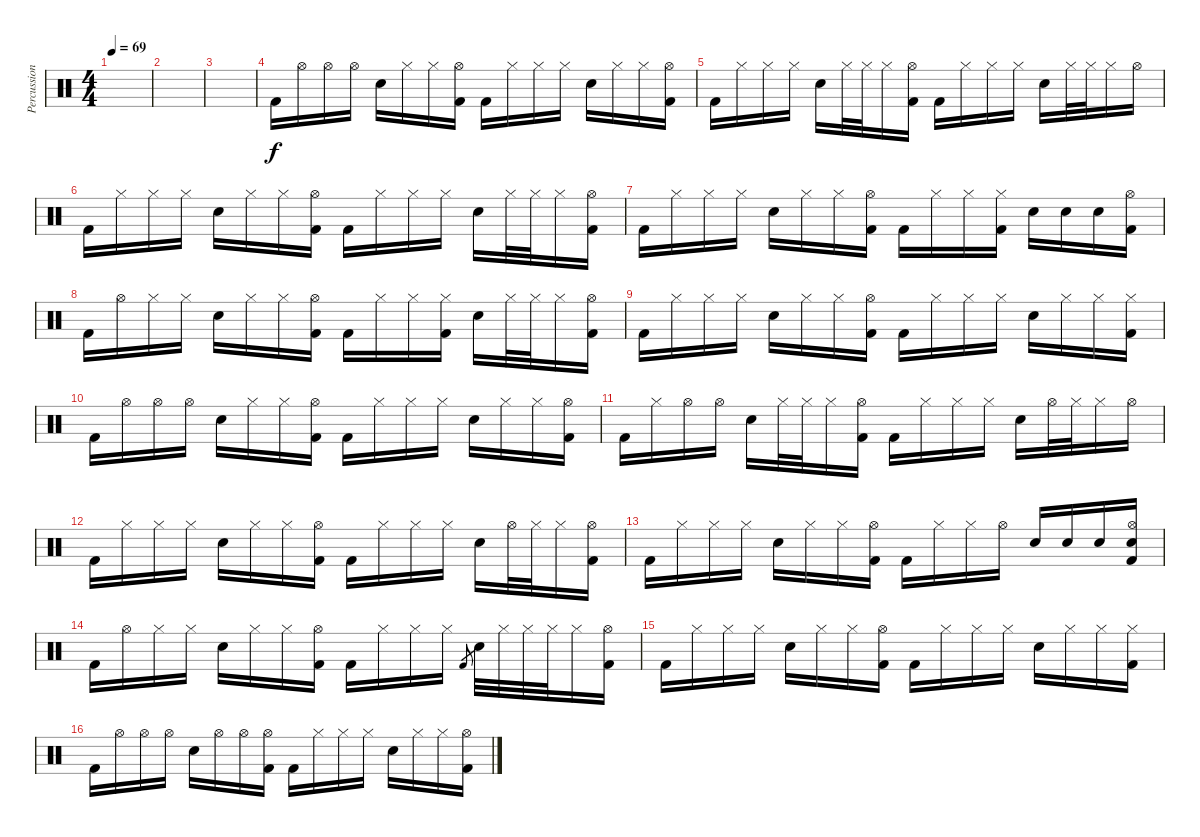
\track ("Percussions" "Percussion") {instrument percussion}
\staff {score}
\articulation defaults
\ts (4 4)
\tempo 69
\clef neutral
\ks c
|
|
|
"Kick (hit) 2".16 "Hi-Hat (open)".16 "Hi-Hat (open)".16 "Hi-Hat (open)".16 "Electric Snare (hit)".16 "Hi-Hat (closed)".16 "Hi-Hat (closed)".16 ("Hi-Hat (open)" "Kick (hit) 2").16 "Kick (hit) 2".16 "Hi-Hat (closed)".16 "Hi-Hat (closed)".16 "Hi-Hat (closed)".16 "Electric Snare (hit)".16 "Hi-Hat (closed)".16 "Hi-Hat (closed)".16 ("Hi-Hat (open)" "Kick (hit) 2").16 |
"Kick (hit) 2".16 "Hi-Hat (closed)".16 "Hi-Hat (closed)".16 "Hi-Hat (closed)".16 "Electric Snare (hit)".16 "Hi-Hat (closed)".32 "Hi-Hat (closed)".32 "Hi-Hat (closed)".16 ("Hi-Hat (open)" "Kick (hit) 2").16 "Kick (hit) 2".16 "Hi-Hat (closed)".16 "Hi-Hat (closed)".16 "Hi-Hat (closed)".16 "Electric Snare (hit)".16 "Hi-Hat (closed)".32 "Hi-Hat (closed)".32 "Hi-Hat (closed)".16 "Hi-Hat (open)".16 |
"Kick (hit) 2".16 "Hi-Hat (closed)".16 "Hi-Hat (closed)".16 "Hi-Hat (closed)".16 "Electric Snare (hit)".16 "Hi-Hat (closed)".16 "Hi-Hat (closed)".16 ("Hi-Hat (open)" "Kick (hit) 2").16 "Kick (hit) 2".16 "Hi-Hat (closed)".16 "Hi-Hat (closed)".16 "Hi-Hat (closed)".16 "Electric Snare (hit)".16 "Hi-Hat (closed)".32 "Hi-Hat (closed)".32 "Hi-Hat (closed)".16 ("Hi-Hat (open)" "Kick (hit) 2").16 |
"Kick (hit) 2".16 "Hi-Hat (closed)".16 "Hi-Hat (closed)".16 "Hi-Hat (closed)".16 "Electric Snare (hit)".16 "Hi-Hat (closed)".16 "Hi-Hat (closed)".16 ("Hi-Hat (open)" "Kick (hit) 2").16 "Kick (hit) 2".16 "Hi-Hat (closed)".16 "Hi-Hat (closed)".16 ("Hi-Hat (closed)" "Kick (hit) 2").16 "Electric Snare (hit)".16 "Electric Snare (hit)".16 "Electric Snare (hit)".16 ("Hi-Hat (open)" "Kick (hit) 2").16 |
"Kick (hit) 2".16 "Hi-Hat (open)".16 "Hi-Hat (closed)".16 "Hi-Hat (closed)".16 "Electric Snare (hit)".16 "Hi-Hat (closed)".16 "Hi-Hat (closed)".16 ("Hi-Hat (open)" "Kick (hit) 2").16 "Kick (hit) 2".16 "Hi-Hat (closed)".16 "Hi-Hat (closed)".16 ("Hi-Hat (closed)" "Kick (hit) 2").16 "Electric Snare (hit)".16 "Hi-Hat (closed)".32 "Hi-Hat (closed)".32 "Hi-Hat (closed)".16 ("Hi-Hat (open)" "Kick (hit) 2").16 |
"Kick (hit) 2".16 "Hi-Hat (closed)".16 "Hi-Hat (closed)".16 "Hi-Hat (closed)".16 "Electric Snare (hit)".16 "Hi-Hat (closed)".16 "Hi-Hat (closed)".16 ("Hi-Hat (open)" "Kick (hit) 2").16 "Kick (hit) 2".16 "Hi-Hat (closed)".16 "Hi-Hat (closed)".16 "Hi-Hat (closed)".16 "Electric Snare (hit)".16 "Hi-Hat (closed)".16 "Hi-Hat (closed)".16 ("Hi-Hat (closed)" "Kick (hit) 2").16 |
"Kick (hit) 2".16 "Hi-Hat (open)".16 "Hi-Hat (open)".16 "Hi-Hat (open)".16 "Electric Snare (hit)".16 "Hi-Hat (closed)".16 "Hi-Hat (closed)".16 ("Hi-Hat (open)" "Kick (hit) 2").16 "Kick (hit) 2".16 "Hi-Hat (closed)".16 "Hi-Hat (closed)".16 "Hi-Hat (closed)".16 "Electric Snare (hit)".16 "Hi-Hat (closed)".16 "Hi-Hat (closed)".16 ("Hi-Hat (open)" "Kick (hit) 2").16 |
"Kick (hit) 2".16 "Hi-Hat (closed)".16 "Hi-Hat (open)".16 "Hi-Hat (open)".16 "Electric Snare (hit)".16 "Hi-Hat (closed)".32 "Hi-Hat (closed)".32 "Hi-Hat (closed)".16 ("Hi-Hat (open)" "Kick (hit) 2").16 "Kick (hit) 2".16 "Hi-Hat (closed)".16 "Hi-Hat (closed)".16 "Hi-Hat (closed)".16 "Electric Snare (hit)".16 "Hi-Hat (open)".32 "Hi-Hat (closed)".32 "Hi-Hat (closed)".16 "Hi-Hat (open)".16 |
"Kick (hit) 2".16 "Hi-Hat (closed)".16 "Hi-Hat (closed)".16 "Hi-Hat (closed)".16 "Electric Snare (hit)".16 "Hi-Hat (closed)".16 "Hi-Hat (closed)".16 ("Hi-Hat (open)" "Kick (hit) 2").16 "Kick (hit) 2".16 "Hi-Hat (closed)".16 "Hi-Hat (closed)".16 "Hi-Hat (closed)".16 "Electric Snare (hit)".16 "Hi-Hat (open)".32 "Hi-Hat (closed)".32 "Hi-Hat (closed)".16 ("Hi-Hat (open)" "Kick (hit) 2").16 |
"Kick (hit) 2".16 "Hi-Hat (closed)".16 "Hi-Hat (closed)".16 "Hi-Hat (closed)".16 "Electric Snare (hit)".16 "Hi-Hat (closed)".16 "Hi-Hat (closed)".16 ("Hi-Hat (open)" "Kick (hit) 2").16 "Kick (hit) 2".16 "Hi-Hat (closed)".16 "Hi-Hat (closed)".16 "Hi-Hat (open)".16 "Electric Snare (hit)".16 "Electric Snare (hit)".16 "Electric Snare (hit)".16 ("Hi-Hat (open)" "Electric Snare (hit)" "Kick (hit) 2").16 |
"Kick (hit) 2".16 "Hi-Hat (open)".16 "Hi-Hat (closed)".16 "Hi-Hat (closed)".16 "Electric Snare (hit)".16 "Hi-Hat (closed)".16 "Hi-Hat (closed)".16 ("Hi-Hat (open)" "Kick (hit) 2").16 "Kick (hit) 2".16 "Hi-Hat (closed)".16 "Hi-Hat (closed)".16 "Hi-Hat (closed)".16 "Kick (hit) 2".8{gr} "Electric Snare (hit)".32 "Hi-Hat (closed)".32 "Hi-Hat (closed)".32 "Hi-Hat (closed)".32 "Hi-Hat (closed)".16 ("Hi-Hat (open)" "Kick (hit) 2").16 |
"Kick (hit) 2".16 "Hi-Hat (closed)".16 "Hi-Hat (closed)".16 "Hi-Hat (closed)".16 "Electric Snare (hit)".16 "Hi-Hat (closed)".16 "Hi-Hat (closed)".16 ("Hi-Hat (open)" "Kick (hit) 2").16 "Kick (hit) 2".16 "Hi-Hat (closed)".16 "Hi-Hat (closed)".16 "Hi-Hat (closed)".16 "Electric Snare (hit)".16 "Hi-Hat (closed)".16 "Hi-Hat (closed)".16 ("Hi-Hat (closed)" "Kick (hit) 2").16 |
"Kick (hit) 2".16 "Hi-Hat (open)".16 "Hi-Hat (open)".16 "Hi-Hat (open)".16 "Electric Snare (hit)".16 "Hi-Hat (open)".16 "Hi-Hat (open)".16 ("Hi-Hat (open)" "Kick (hit) 2").16 "Kick (hit) 2".16 "Hi-Hat (closed)".16 "Hi-Hat (closed)".16 "Hi-Hat (closed)".16 "Electric Snare (hit)".16 "Hi-Hat (closed)".16 "Hi-Hat (closed)".16 ("Hi-Hat (open)" "Kick (hit) 2").16
